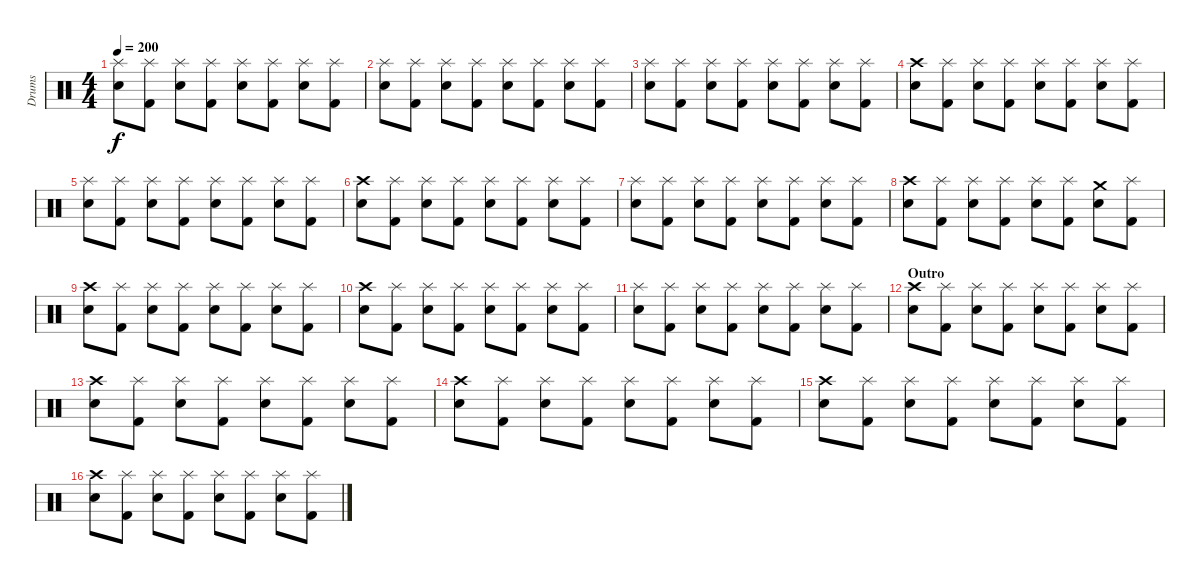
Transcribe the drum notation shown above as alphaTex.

\track ("Drums" "Drums") {instrument percussion}
\staff {score}
\articulation defaults
\ts (4 4)
\tempo 200
\clef neutral
\ks c
("Splash (hit)" "Electric Snare (hit)").8{dy f} ("Splash (hit)" "Kick (hit) 2").8 ("Splash (hit)" "Electric Snare (hit)").8 ("Splash (hit)" "Kick (hit) 2").8 ("Splash (hit)" "Electric Snare (hit)").8 ("Splash (hit)" "Kick (hit) 2").8 ("Splash (hit)" "Electric Snare (hit)").8 ("Splash (hit)" "Kick (hit) 2").8 |
("Splash (hit)" "Electric Snare (hit)").8 ("Splash (hit)" "Kick (hit) 2").8 ("Splash (hit)" "Electric Snare (hit)").8 ("Splash (hit)" "Kick (hit) 2").8 ("Splash (hit)" "Electric Snare (hit)").8 ("Splash (hit)" "Kick (hit) 2").8 ("Splash (hit)" "Electric Snare (hit)").8 ("Splash (hit)" "Kick (hit) 2").8 |
("Splash (hit)" "Electric Snare (hit)").8 ("Splash (hit)" "Kick (hit) 2").8 ("Splash (hit)" "Electric Snare (hit)").8 ("Splash (hit)" "Kick (hit) 2").8 ("Splash (hit)" "Electric Snare (hit)").8 ("Splash (hit)" "Kick (hit) 2").8 ("Splash (hit)" "Electric Snare (hit)").8 ("Splash (hit)" "Kick (hit) 2").8 |
("Crash high (hit)" "Electric Snare (hit)").8 ("Splash (hit)" "Kick (hit) 2").8 ("Splash (hit)" "Electric Snare (hit)").8 ("Splash (hit)" "Kick (hit) 2").8 ("Splash (hit)" "Electric Snare (hit)").8 ("Splash (hit)" "Kick (hit) 2").8 ("Splash (hit)" "Electric Snare (hit)").8 ("Splash (hit)" "Kick (hit) 2").8 |
("Splash (hit)" "Electric Snare (hit)").8 ("Splash (hit)" "Kick (hit) 2").8 ("Splash (hit)" "Electric Snare (hit)").8 ("Splash (hit)" "Kick (hit) 2").8 ("Splash (hit)" "Electric Snare (hit)").8 ("Splash (hit)" "Kick (hit) 2").8 ("Splash (hit)" "Electric Snare (hit)").8 ("Splash (hit)" "Kick (hit) 2").8 |
("Crash high (hit)" "Electric Snare (hit)").8 ("Splash (hit)" "Kick (hit) 2").8 ("Splash (hit)" "Electric Snare (hit)").8 ("Splash (hit)" "Kick (hit) 2").8 ("Splash (hit)" "Electric Snare (hit)").8 ("Splash (hit)" "Kick (hit) 2").8 ("Splash (hit)" "Electric Snare (hit)").8 ("Splash (hit)" "Kick (hit) 2").8 |
("Splash (hit)" "Electric Snare (hit)").8 ("Splash (hit)" "Kick (hit) 2").8 ("Splash (hit)" "Electric Snare (hit)").8 ("Splash (hit)" "Kick (hit) 2").8 ("Splash (hit)" "Electric Snare (hit)").8 ("Splash (hit)" "Kick (hit) 2").8 ("Splash (hit)" "Electric Snare (hit)").8 ("Splash (hit)" "Kick (hit) 2").8 |
("Crash high (hit)" "Electric Snare (hit)").8 ("Splash (hit)" "Kick (hit) 2").8 ("Splash (hit)" "Electric Snare (hit)").8 ("Splash (hit)" "Kick (hit) 2").8 ("Splash (hit)" "Electric Snare (hit)").8 ("Splash (hit)" "Kick (hit) 2").8 ("Crash medium (hit)" "Electric Snare (hit)").8 ("Splash (hit)" "Kick (hit) 2").8 |
("Crash high (hit)" "Electric Snare (hit)").8 ("Splash (hit)" "Kick (hit) 2").8 ("Splash (hit)" "Electric Snare (hit)").8 ("Splash (hit)" "Kick (hit) 2").8 ("Splash (hit)" "Electric Snare (hit)").8 ("Splash (hit)" "Kick (hit) 2").8 ("Splash (hit)" "Electric Snare (hit)").8 ("Splash (hit)" "Kick (hit) 2").8 |
("Crash high (hit)" "Electric Snare (hit)").8 ("Splash (hit)" "Kick (hit) 2").8 ("Splash (hit)" "Electric Snare (hit)").8 ("Splash (hit)" "Kick (hit) 2").8 ("Splash (hit)" "Electric Snare (hit)").8 ("Splash (hit)" "Kick (hit) 2").8 ("Splash (hit)" "Electric Snare (hit)").8 ("Splash (hit)" "Kick (hit) 2").8 |
("Splash (hit)" "Electric Snare (hit)").8 ("Splash (hit)" "Kick (hit) 2").8 ("Splash (hit)" "Electric Snare (hit)").8 ("Splash (hit)" "Kick (hit) 2").8 ("Splash (hit)" "Electric Snare (hit)").8 ("Splash (hit)" "Kick (hit) 2").8 ("Splash (hit)" "Electric Snare (hit)").8 ("Splash (hit)" "Kick (hit) 2").8 |
\section ("" "Outro")
("Crash high (hit)" "Electric Snare (hit)").8 ("Splash (hit)" "Kick (hit) 2").8 ("Splash (hit)" "Electric Snare (hit)").8 ("Splash (hit)" "Kick (hit) 2").8 ("Splash (hit)" "Electric Snare (hit)").8 ("Splash (hit)" "Kick (hit) 2").8 ("Splash (hit)" "Electric Snare (hit)").8 ("Splash (hit)" "Kick (hit) 2").8 |
("Crash high (hit)" "Electric Snare (hit)").8 ("Splash (hit)" "Kick (hit) 2").8 ("Splash (hit)" "Electric Snare (hit)").8 ("Splash (hit)" "Kick (hit) 2").8 ("Splash (hit)" "Electric Snare (hit)").8 ("Splash (hit)" "Kick (hit) 2").8 ("Splash (hit)" "Electric Snare (hit)").8 ("Splash (hit)" "Kick (hit) 2").8 |
("Crash high (hit)" "Electric Snare (hit)").8 ("Splash (hit)" "Kick (hit) 2").8 ("Splash (hit)" "Electric Snare (hit)").8 ("Splash (hit)" "Kick (hit) 2").8 ("Splash (hit)" "Electric Snare (hit)").8 ("Splash (hit)" "Kick (hit) 2").8 ("Splash (hit)" "Electric Snare (hit)").8 ("Splash (hit)" "Kick (hit) 2").8 |
("Crash high (hit)" "Electric Snare (hit)").8 ("Splash (hit)" "Kick (hit) 2").8 ("Splash (hit)" "Electric Snare (hit)").8 ("Splash (hit)" "Kick (hit) 2").8 ("Splash (hit)" "Electric Snare (hit)").8 ("Splash (hit)" "Kick (hit) 2").8 ("Splash (hit)" "Electric Snare (hit)").8 ("Splash (hit)" "Kick (hit) 2").8 |
("Crash high (hit)" "Electric Snare (hit)").8 ("Splash (hit)" "Kick (hit) 2").8 ("Splash (hit)" "Electric Snare (hit)").8 ("Splash (hit)" "Kick (hit) 2").8 ("Splash (hit)" "Electric Snare (hit)").8 ("Splash (hit)" "Kick (hit) 2").8 ("Splash (hit)" "Electric Snare (hit)").8 ("Splash (hit)" "Kick (hit) 2").8
